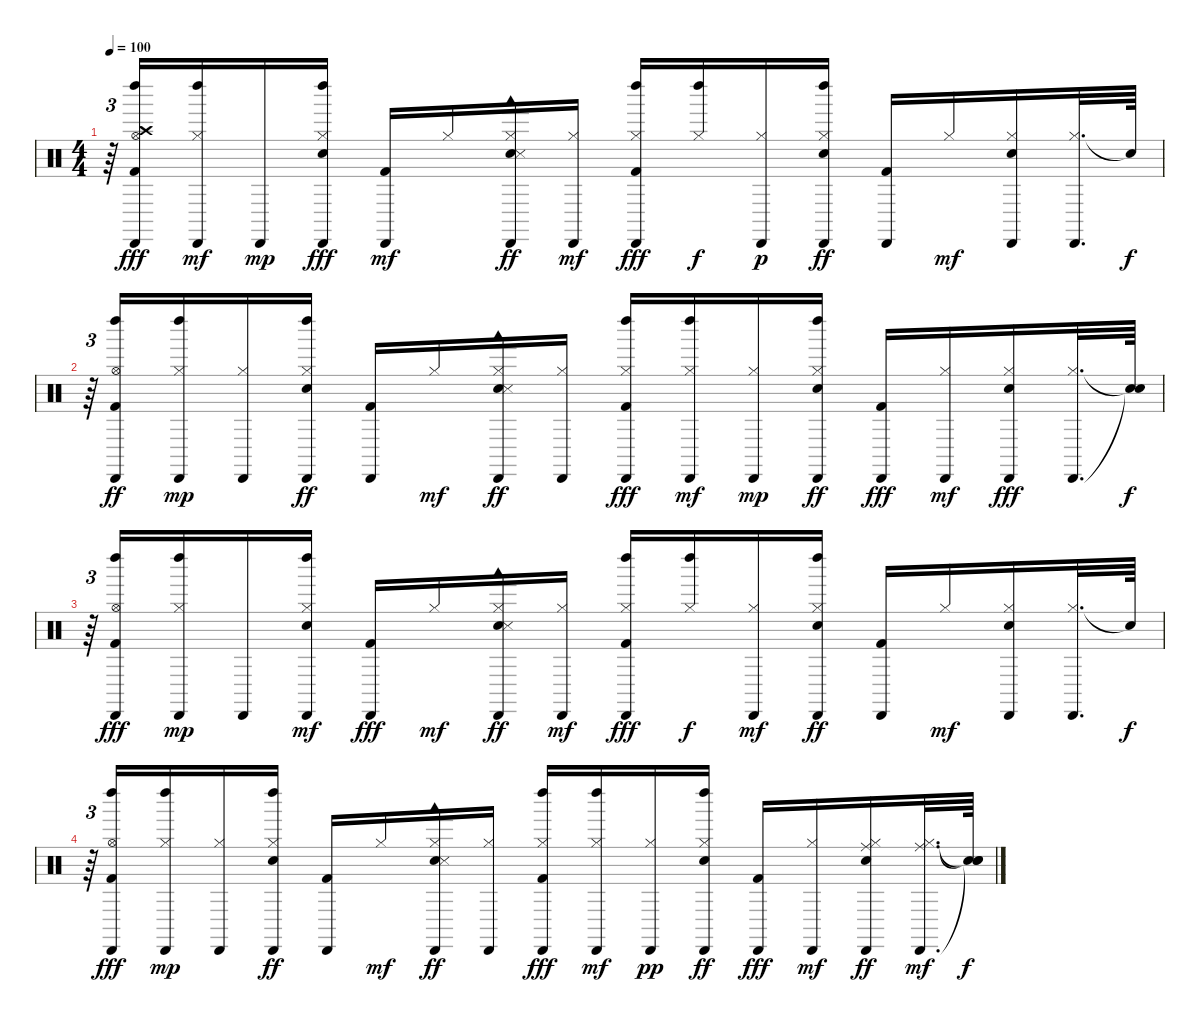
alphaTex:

\track "" {instrument percussion}
\staff {score}
\articulation defaults
\ts (4 4)
\tempo 100
\clef neutral
\ks c
r.64{tu (3 2) dy f} ("Hi-Hat (open)" "Kick (hit) 2" "Left Maraca (hit)" "Crash high (hit)" "Cabasa (hit)").16{dy fff} ("Left Maraca (hit)" "Hi-Hat (closed)" "Cabasa (hit)").16{dy mf} "Cabasa (hit)".16{dy mp} ("Hi-Hat (closed)" "Cabasa (hit)" "Left Maraca (hit)" "Electric Snare (hit)").16{dy fff} ("Kick (hit) 2" "Cabasa (hit)").16{dy mf} "Hi-Hat (closed)".16 ("Electric Snare (hit)" "Cabasa (hit)" "Hi-Hat (closed)" "Woodblock low (hit)" "Snare (side stick) 3").16{dy ff} ("Hi-Hat (closed)" "Cabasa (hit)").16{dy mf} ("Left Maraca (hit)" "Hi-Hat (closed)" "Cabasa (hit)" "Kick (hit) 2").16{dy fff} ("Left Maraca (hit)" "Hi-Hat (closed)").16{dy f} ("Cabasa (hit)" "Hi-Hat (closed)").16{dy p} ("Hi-Hat (closed)" "Electric Snare (hit)" "Cabasa (hit)" "Left Maraca (hit)").16{dy ff} ("Kick (hit) 2" "Cabasa (hit)").16 "Hi-Hat (closed)".16{dy mf} ("Electric Snare (hit)" "Hi-Hat (closed)" "Cabasa (hit)").16 ("Hi-Hat (closed)" "Cabasa (hit)").32{d} "Snare (hit)"{t}.64{dy f} |
r.64{tu (3 2)} ("Cabasa (hit)" "Left Maraca (hit)" "Kick (hit) 2" "Hi-Hat (open)").16{dy ff} ("Hi-Hat (closed)" "Left Maraca (hit)" "Cabasa (hit)").16{dy mp} ("Hi-Hat (closed)" "Cabasa (hit)").16 ("Hi-Hat (closed)" "Cabasa (hit)" "Left Maraca (hit)" "Electric Snare (hit)").16{dy ff} ("Cabasa (hit)" "Kick (hit) 2").16 "Hi-Hat (closed)".16{dy mf} ("Hi-Hat (closed)" "Electric Snare (hit)" "Woodblock low (hit)" "Cabasa (hit)" "Snare (side stick) 3").16{dy ff} ("Hi-Hat (closed)" "Cabasa (hit)").16 ("Cabasa (hit)" "Hi-Hat (closed)" "Kick (hit) 2" "Left Maraca (hit)").16{dy fff} ("Hi-Hat (closed)" "Left Maraca (hit)" "Cabasa (hit)").16{dy mf} ("Hi-Hat (closed)" "Cabasa (hit)").16{dy mp} ("Left Maraca (hit)" "Cabasa (hit)" "Electric Snare (hit)" "Hi-Hat (closed)").16{dy ff} ("Cabasa (hit)" "Kick (hit) 2").16{dy fff} ("Cabasa (hit)" "Hi-Hat (closed)").16{dy mf} ("Hi-Hat (closed)" "Cabasa (hit)" "Electric Snare (hit)").16{dy fff} ("Cabasa (hit)" "Hi-Hat (closed)").32{d} ("Snare (hit)"{t} "Snare (hit)"{t}).64{dy f} |
r.64{tu (3 2)} ("Hi-Hat (open)" "Kick (hit) 2" "Left Maraca (hit)" "Cabasa (hit)").16{dy fff} ("Left Maraca (hit)" "Cabasa (hit)" "Hi-Hat (closed)").16{dy mp} "Cabasa (hit)".16 ("Electric Snare (hit)" "Hi-Hat (closed)" "Cabasa (hit)" "Left Maraca (hit)").16{dy mf} ("Cabasa (hit)" "Kick (hit) 2").16{dy fff} "Hi-Hat (closed)".16{dy mf} ("Cabasa (hit)" "Electric Snare (hit)" "Woodblock low (hit)" "Hi-Hat (closed)" "Snare (side stick) 3").16{dy ff} ("Cabasa (hit)" "Hi-Hat (closed)").16{dy mf} ("Hi-Hat (closed)" "Kick (hit) 2" "Cabasa (hit)" "Left Maraca (hit)").16{dy fff} ("Hi-Hat (closed)" "Left Maraca (hit)").16{dy f} ("Hi-Hat (closed)" "Cabasa (hit)").16{dy mf} ("Hi-Hat (closed)" "Left Maraca (hit)" "Cabasa (hit)" "Electric Snare (hit)").16{dy ff} ("Cabasa (hit)" "Kick (hit) 2").16 "Hi-Hat (closed)".16{dy mf} ("Hi-Hat (closed)" "Electric Snare (hit)" "Cabasa (hit)").16 ("Hi-Hat (closed)" "Cabasa (hit)").32{d} "Snare (hit)"{t}.64{dy f} |
r.64{tu (3 2)} ("Left Maraca (hit)" "Cabasa (hit)" "Hi-Hat (open)" "Kick (hit) 2").16{dy fff} ("Hi-Hat (closed)" "Left Maraca (hit)" "Cabasa (hit)").16{dy mp} ("Hi-Hat (closed)" "Cabasa (hit)").16 ("Left Maraca (hit)" "Electric Snare (hit)" "Cabasa (hit)" "Hi-Hat (closed)").16{dy ff} ("Kick (hit) 2" "Cabasa (hit)").16 "Hi-Hat (closed)".16{dy mf} ("Cabasa (hit)" "Woodblock low (hit)" "Hi-Hat (closed)" "Electric Snare (hit)" "Snare (side stick) 3").16{dy ff} ("Cabasa (hit)" "Hi-Hat (closed)").16 ("Kick (hit) 2" "Hi-Hat (closed)" "Cabasa (hit)" "Left Maraca (hit)").16{dy fff} ("Cabasa (hit)" "Hi-Hat (closed)" "Left Maraca (hit)").16{dy mf} ("Cabasa (hit)" "Hi-Hat (closed)").16{dy pp} ("Cabasa (hit)" "Left Maraca (hit)" "Electric Snare (hit)" "Hi-Hat (closed)").16{dy ff} ("Cabasa (hit)" "Kick (hit) 2").16{dy fff} ("Cabasa (hit)" "Hi-Hat (closed)").16{dy mf} ("Ride (middle)" "Cabasa (hit)" "Electric Snare (hit)" "Hi-Hat (closed)").16{dy ff} ("Cabasa (hit)" "Hi-Hat (closed)" "Ride (middle)").32{d dy mf} ("Snare (hit)"{t} "Snare (hit)"{t} "Snare (hit)"{t}).64{dy f}
